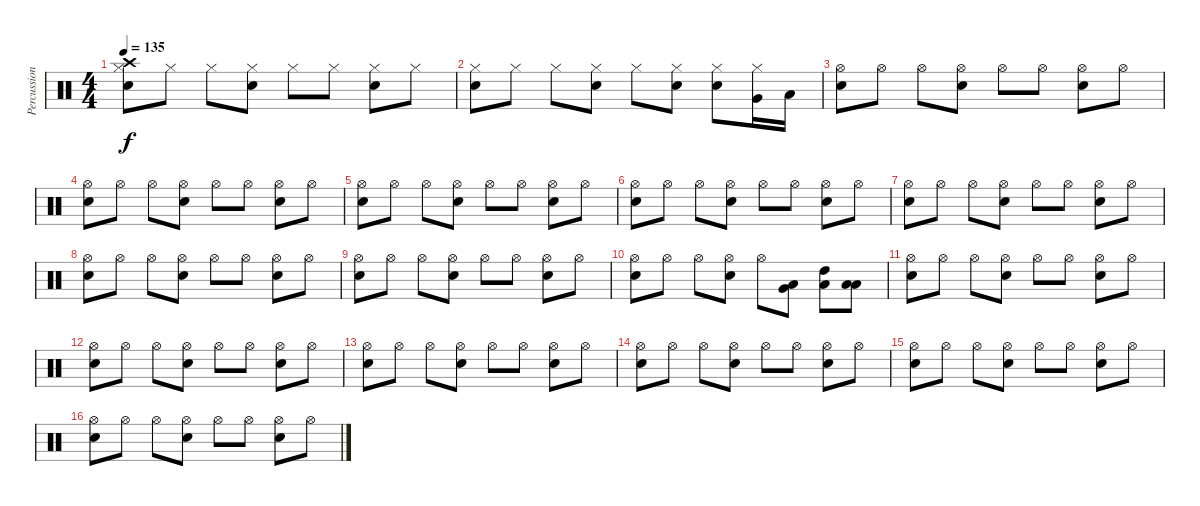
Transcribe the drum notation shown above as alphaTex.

\track ("Percussions" "Percussion") {instrument percussion}
\staff {score}
\articulation defaults
\ts (4 4)
\tempo 135
\clef neutral
\ks c
("Crash high (hit)" "Hi-Hat (closed)" "Electric Snare (hit)").8{dy f} "Hi-Hat (closed)".8 "Hi-Hat (closed)".8 ("Hi-Hat (closed)" "Electric Snare (hit)").8 "Hi-Hat (closed)".8 "Hi-Hat (closed)".8 ("Hi-Hat (closed)" "Electric Snare (hit)").8 "Hi-Hat (closed)".8 |
("Hi-Hat (closed)" "Electric Snare (hit)").8 "Hi-Hat (closed)".8 "Hi-Hat (closed)".8 ("Hi-Hat (closed)" "Electric Snare (hit)").8 "Hi-Hat (closed)".8 ("Hi-Hat (closed)" "Electric Snare (hit)").8 ("Hi-Hat (closed)" "Electric Snare (hit)").8 ("Hi-Hat (closed)" "Very Low Tom (hit)").16 "Low Tom (hit)".16 |
("Hi-Hat (open)" "Electric Snare (hit)").8 "Hi-Hat (open)".8 "Hi-Hat (open)".8 ("Hi-Hat (open)" "Electric Snare (hit)").8 "Hi-Hat (open)".8 "Hi-Hat (open)".8 ("Hi-Hat (open)" "Electric Snare (hit)").8 "Hi-Hat (open)".8 |
("Hi-Hat (open)" "Electric Snare (hit)").8 "Hi-Hat (open)".8 "Hi-Hat (open)".8 ("Hi-Hat (open)" "Electric Snare (hit)").8 "Hi-Hat (open)".8 "Hi-Hat (open)".8 ("Hi-Hat (open)" "Electric Snare (hit)").8 "Hi-Hat (open)".8 |
("Hi-Hat (open)" "Electric Snare (hit)").8 "Hi-Hat (open)".8 "Hi-Hat (open)".8 ("Hi-Hat (open)" "Electric Snare (hit)").8 "Hi-Hat (open)".8 "Hi-Hat (open)".8 ("Hi-Hat (open)" "Electric Snare (hit)").8 "Hi-Hat (open)".8 |
("Hi-Hat (open)" "Electric Snare (hit)").8 "Hi-Hat (open)".8 "Hi-Hat (open)".8 ("Hi-Hat (open)" "Electric Snare (hit)").8 "Hi-Hat (open)".8 "Hi-Hat (open)".8 ("Hi-Hat (open)" "Electric Snare (hit)").8 "Hi-Hat (open)".8 |
("Hi-Hat (open)" "Electric Snare (hit)").8 "Hi-Hat (open)".8 "Hi-Hat (open)".8 ("Hi-Hat (open)" "Electric Snare (hit)").8 "Hi-Hat (open)".8 "Hi-Hat (open)".8 ("Hi-Hat (open)" "Electric Snare (hit)").8 "Hi-Hat (open)".8 |
("Hi-Hat (open)" "Electric Snare (hit)").8 "Hi-Hat (open)".8 "Hi-Hat (open)".8 ("Hi-Hat (open)" "Electric Snare (hit)").8 "Hi-Hat (open)".8 "Hi-Hat (open)".8 ("Hi-Hat (open)" "Electric Snare (hit)").8 "Hi-Hat (open)".8 |
("Hi-Hat (open)" "Electric Snare (hit)").8 "Hi-Hat (open)".8 "Hi-Hat (open)".8 ("Hi-Hat (open)" "Electric Snare (hit)").8 "Hi-Hat (open)".8 "Hi-Hat (open)".8 ("Hi-Hat (open)" "Electric Snare (hit)").8 "Hi-Hat (open)".8 |
("Hi-Hat (open)" "Electric Snare (hit)").8 "Hi-Hat (open)".8 "Hi-Hat (open)".8 ("Hi-Hat (open)" "Electric Snare (hit)").8 "Hi-Hat (open)".8 ("Low Floor Tom (hit)" "Very Low Tom (hit)").8 ("Low Floor Tom (hit)" "High Tom (hit)").8 ("Low Floor Tom (hit)" "Low Tom (hit)").8 |
("Hi-Hat (open)" "Electric Snare (hit)").8 "Hi-Hat (open)".8 "Hi-Hat (open)".8 ("Hi-Hat (open)" "Electric Snare (hit)").8 "Hi-Hat (open)".8 "Hi-Hat (open)".8 ("Hi-Hat (open)" "Electric Snare (hit)").8 "Hi-Hat (open)".8 |
("Hi-Hat (open)" "Electric Snare (hit)").8 "Hi-Hat (open)".8 "Hi-Hat (open)".8 ("Hi-Hat (open)" "Electric Snare (hit)").8 "Hi-Hat (open)".8 "Hi-Hat (open)".8 ("Hi-Hat (open)" "Electric Snare (hit)").8 "Hi-Hat (open)".8 |
("Hi-Hat (open)" "Electric Snare (hit)").8 "Hi-Hat (open)".8 "Hi-Hat (open)".8 ("Hi-Hat (open)" "Electric Snare (hit)").8 "Hi-Hat (open)".8 "Hi-Hat (open)".8 ("Hi-Hat (open)" "Electric Snare (hit)").8 "Hi-Hat (open)".8 |
("Hi-Hat (open)" "Electric Snare (hit)").8 "Hi-Hat (open)".8 "Hi-Hat (open)".8 ("Hi-Hat (open)" "Electric Snare (hit)").8 "Hi-Hat (open)".8 "Hi-Hat (open)".8 ("Hi-Hat (open)" "Electric Snare (hit)").8 "Hi-Hat (open)".8 |
("Hi-Hat (open)" "Electric Snare (hit)").8 "Hi-Hat (open)".8 "Hi-Hat (open)".8 ("Hi-Hat (open)" "Electric Snare (hit)").8 "Hi-Hat (open)".8 "Hi-Hat (open)".8 ("Hi-Hat (open)" "Electric Snare (hit)").8 "Hi-Hat (open)".8 |
("Hi-Hat (open)" "Electric Snare (hit)").8 "Hi-Hat (open)".8 "Hi-Hat (open)".8 ("Hi-Hat (open)" "Electric Snare (hit)").8 "Hi-Hat (open)".8 "Hi-Hat (open)".8 ("Hi-Hat (open)" "Electric Snare (hit)").8 "Hi-Hat (open)".8
